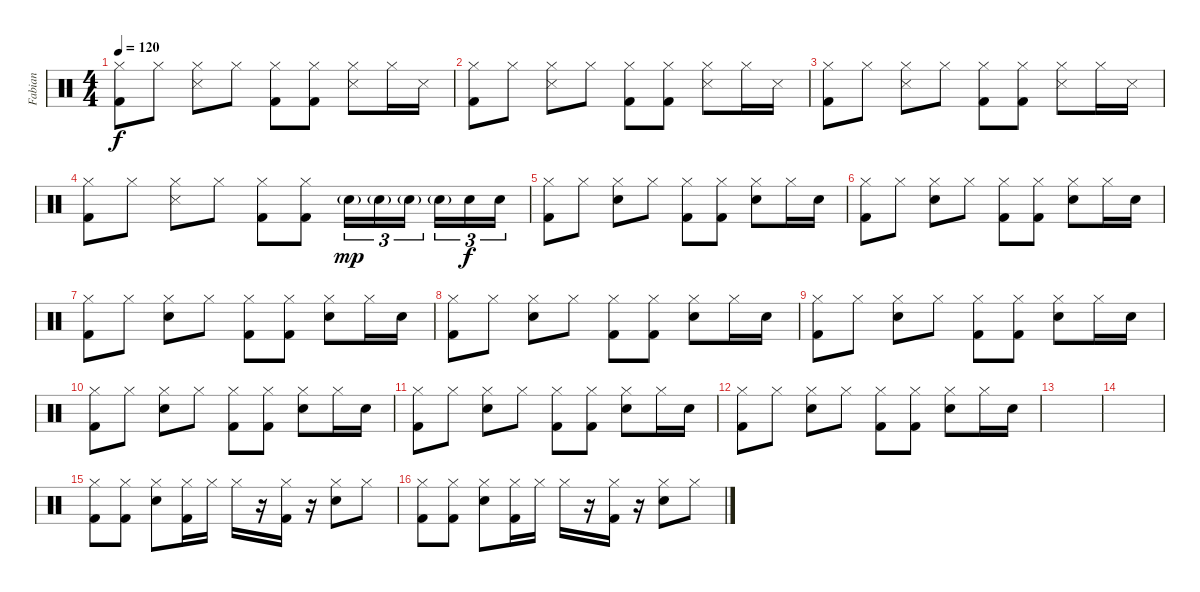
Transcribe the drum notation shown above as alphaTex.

\track ("Fabian" "Fabian") {instrument percussion}
\staff {score}
\articulation defaults
\ts (4 4)
\tempo 120
\clef neutral
\ks c
("Hi-Hat (closed)" "Kick (hit) 2").8{dy f} "Hi-Hat (closed)".8 ("Hi-Hat (closed)" "Snare (side stick) 3").8 "Hi-Hat (closed)".8 ("Hi-Hat (closed)" "Kick (hit) 2").8 ("Hi-Hat (closed)" "Kick (hit) 2").8 ("Hi-Hat (closed)" "Snare (side stick) 3").8 "Hi-Hat (closed)".16 "Snare (side stick) 3".16 |
("Hi-Hat (closed)" "Kick (hit) 2").8 "Hi-Hat (closed)".8 ("Hi-Hat (closed)" "Snare (side stick) 3").8 "Hi-Hat (closed)".8 ("Hi-Hat (closed)" "Kick (hit) 2").8 ("Hi-Hat (closed)" "Kick (hit) 2").8 ("Hi-Hat (closed)" "Snare (side stick) 3").8 "Hi-Hat (closed)".16 "Snare (side stick) 3".16 |
("Hi-Hat (closed)" "Kick (hit) 2").8 "Hi-Hat (closed)".8 ("Hi-Hat (closed)" "Snare (side stick) 3").8 "Hi-Hat (closed)".8 ("Hi-Hat (closed)" "Kick (hit) 2").8 ("Hi-Hat (closed)" "Kick (hit) 2").8 ("Hi-Hat (closed)" "Snare (side stick) 3").8 "Hi-Hat (closed)".16 "Snare (side stick) 3".16 |
("Hi-Hat (closed)" "Kick (hit) 2").8 "Hi-Hat (closed)".8 ("Hi-Hat (closed)" "Snare (side stick) 3").8 "Hi-Hat (closed)".8 ("Hi-Hat (closed)" "Kick (hit) 2").8 ("Hi-Hat (closed)" "Kick (hit) 2").8 "Snare (hit) 2"{g}.16{tu (3 2) dy mp} "Snare (hit) 2"{g}.16{tu (3 2)} "Snare (hit) 2"{g}.16{tu (3 2)} "Snare (hit) 2"{g}.16{tu (3 2)} "Snare (hit) 2".16{tu (3 2) dy f} "Snare (hit) 2".16{tu (3 2)} |
("Hi-Hat (closed)" "Kick (hit) 2").8 "Hi-Hat (closed)".8 ("Hi-Hat (closed)" "Snare (hit) 2").8 "Hi-Hat (closed)".8 ("Hi-Hat (closed)" "Kick (hit) 2").8 ("Hi-Hat (closed)" "Kick (hit) 2").8 ("Hi-Hat (closed)" "Snare (hit) 2").8 "Hi-Hat (closed)".16 "Snare (hit) 2".16 |
("Hi-Hat (closed)" "Kick (hit) 2").8 "Hi-Hat (closed)".8 ("Hi-Hat (closed)" "Snare (hit) 2").8 "Hi-Hat (closed)".8 ("Hi-Hat (closed)" "Kick (hit) 2").8 ("Hi-Hat (closed)" "Kick (hit) 2").8 ("Hi-Hat (closed)" "Snare (hit) 2").8 "Hi-Hat (closed)".16 "Snare (hit) 2".16 |
("Hi-Hat (closed)" "Kick (hit) 2").8 "Hi-Hat (closed)".8 ("Hi-Hat (closed)" "Snare (hit) 2").8 "Hi-Hat (closed)".8 ("Hi-Hat (closed)" "Kick (hit) 2").8 ("Hi-Hat (closed)" "Kick (hit) 2").8 ("Hi-Hat (closed)" "Snare (hit) 2").8 "Hi-Hat (closed)".16 "Snare (hit) 2".16 |
("Hi-Hat (closed)" "Kick (hit) 2").8 "Hi-Hat (closed)".8 ("Hi-Hat (closed)" "Snare (hit) 2").8 "Hi-Hat (closed)".8 ("Hi-Hat (closed)" "Kick (hit) 2").8 ("Hi-Hat (closed)" "Kick (hit) 2").8 ("Hi-Hat (closed)" "Snare (hit) 2").8 "Hi-Hat (closed)".16 "Snare (hit) 2".16 |
("Hi-Hat (closed)" "Kick (hit) 2").8 "Hi-Hat (closed)".8 ("Hi-Hat (closed)" "Snare (hit) 2").8 "Hi-Hat (closed)".8 ("Hi-Hat (closed)" "Kick (hit) 2").8 ("Hi-Hat (closed)" "Kick (hit) 2").8 ("Hi-Hat (closed)" "Snare (hit) 2").8 "Hi-Hat (closed)".16 "Snare (hit) 2".16 |
("Hi-Hat (closed)" "Kick (hit) 2").8 "Hi-Hat (closed)".8 ("Hi-Hat (closed)" "Snare (hit) 2").8 "Hi-Hat (closed)".8 ("Hi-Hat (closed)" "Kick (hit) 2").8 ("Hi-Hat (closed)" "Kick (hit) 2").8 ("Hi-Hat (closed)" "Snare (hit) 2").8 "Hi-Hat (closed)".16 "Snare (hit) 2".16 |
("Hi-Hat (closed)" "Kick (hit) 2").8 "Hi-Hat (closed)".8 ("Hi-Hat (closed)" "Snare (hit) 2").8 "Hi-Hat (closed)".8 ("Hi-Hat (closed)" "Kick (hit) 2").8 ("Hi-Hat (closed)" "Kick (hit) 2").8 ("Hi-Hat (closed)" "Snare (hit) 2").8 "Hi-Hat (closed)".16 "Snare (hit) 2".16 |
("Hi-Hat (closed)" "Kick (hit) 2").8 "Hi-Hat (closed)".8 ("Hi-Hat (closed)" "Snare (hit) 2").8 "Hi-Hat (closed)".8 ("Hi-Hat (closed)" "Kick (hit) 2").8 ("Hi-Hat (closed)" "Kick (hit) 2").8 ("Hi-Hat (closed)" "Snare (hit) 2").8 "Hi-Hat (closed)".16 "Snare (hit) 2".16 |
|
|
("Hi-Hat (closed)" "Kick (hit) 2").8 ("Hi-Hat (closed)" "Kick (hit) 2").8 ("Hi-Hat (closed)" "Electric Snare (hit)").8 ("Hi-Hat (closed)" "Kick (hit) 2").16 "Hi-Hat (closed)".16 "Hi-Hat (closed)".16 r.16 ("Hi-Hat (closed)" "Kick (hit) 2").16 r.16 ("Hi-Hat (closed)" "Electric Snare (hit)").8 "Hi-Hat (closed)".8 |
("Hi-Hat (closed)" "Kick (hit) 2").8 ("Hi-Hat (closed)" "Kick (hit) 2").8 ("Hi-Hat (closed)" "Electric Snare (hit)").8 ("Hi-Hat (closed)" "Kick (hit) 2").16 "Hi-Hat (closed)".16 "Hi-Hat (closed)".16 r.16 ("Hi-Hat (closed)" "Kick (hit) 2").16 r.16 ("Hi-Hat (closed)" "Electric Snare (hit)").8 "Hi-Hat (closed)".8
